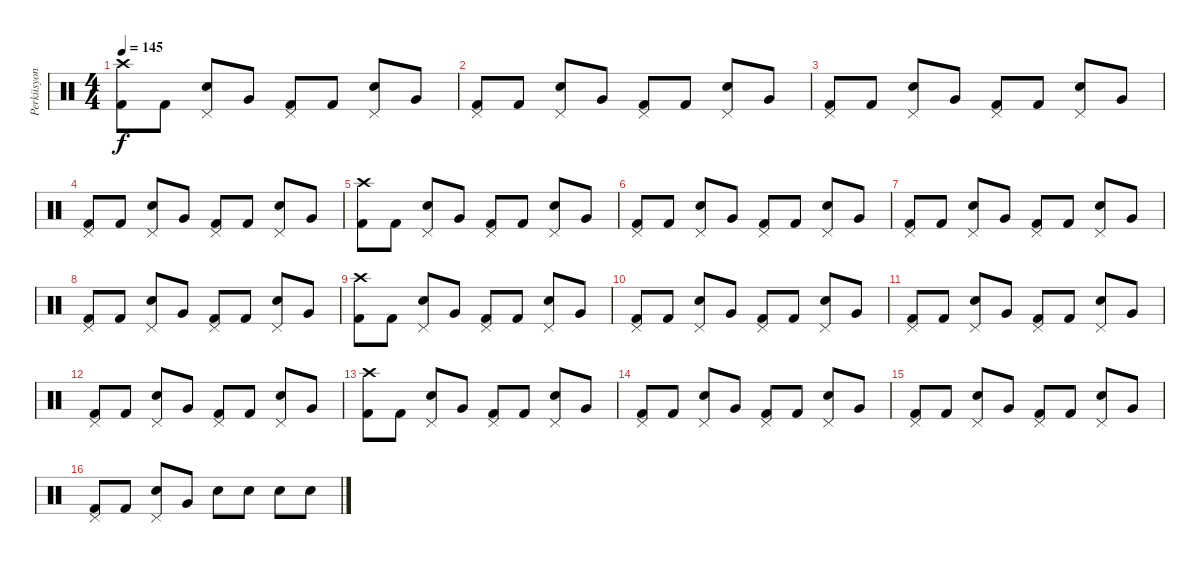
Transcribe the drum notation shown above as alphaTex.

\track ("Perküsyon" "Perküsyon") {instrument percussion}
\staff {score}
\articulation defaults
\ts (4 4)
\tempo 145
\clef neutral
\ks c
("Crash high (hit)" "Kick (hit) 2").8{dy f} "Kick (hit) 2".8 ("Pedal Hi-Hat (hit)" "Snare (hit) 2").8 "Very Low Tom (hit)".8 ("Pedal Hi-Hat (hit)" "Kick (hit) 2").8 "Kick (hit) 2".8 ("Pedal Hi-Hat (hit)" "Snare (hit) 2").8 "Very Low Tom (hit)".8 |
("Pedal Hi-Hat (hit)" "Kick (hit) 2").8 "Kick (hit) 2".8 ("Pedal Hi-Hat (hit)" "Snare (hit) 2").8 "Very Low Tom (hit)".8 ("Pedal Hi-Hat (hit)" "Kick (hit) 2").8 "Kick (hit) 2".8 ("Pedal Hi-Hat (hit)" "Snare (hit) 2").8 "Very Low Tom (hit)".8 |
("Pedal Hi-Hat (hit)" "Kick (hit) 2").8 "Kick (hit) 2".8 ("Pedal Hi-Hat (hit)" "Snare (hit) 2").8 "Very Low Tom (hit)".8 ("Pedal Hi-Hat (hit)" "Kick (hit) 2").8 "Kick (hit) 2".8 ("Pedal Hi-Hat (hit)" "Snare (hit) 2").8 "Very Low Tom (hit)".8 |
("Pedal Hi-Hat (hit)" "Kick (hit) 2").8 "Kick (hit) 2".8 ("Pedal Hi-Hat (hit)" "Snare (hit) 2").8 "Very Low Tom (hit)".8 ("Pedal Hi-Hat (hit)" "Kick (hit) 2").8 "Kick (hit) 2".8 ("Pedal Hi-Hat (hit)" "Snare (hit) 2").8 "Very Low Tom (hit)".8 |
("Crash high (hit)" "Kick (hit) 2").8 "Kick (hit) 2".8 ("Pedal Hi-Hat (hit)" "Snare (hit) 2").8 "Very Low Tom (hit)".8 ("Pedal Hi-Hat (hit)" "Kick (hit) 2").8 "Kick (hit) 2".8 ("Pedal Hi-Hat (hit)" "Snare (hit) 2").8 "Very Low Tom (hit)".8 |
("Pedal Hi-Hat (hit)" "Kick (hit) 2").8 "Kick (hit) 2".8 ("Pedal Hi-Hat (hit)" "Snare (hit) 2").8 "Very Low Tom (hit)".8 ("Pedal Hi-Hat (hit)" "Kick (hit) 2").8 "Kick (hit) 2".8 ("Pedal Hi-Hat (hit)" "Snare (hit) 2").8 "Very Low Tom (hit)".8 |
("Pedal Hi-Hat (hit)" "Kick (hit) 2").8 "Kick (hit) 2".8 ("Pedal Hi-Hat (hit)" "Snare (hit) 2").8 "Very Low Tom (hit)".8 ("Pedal Hi-Hat (hit)" "Kick (hit) 2").8 "Kick (hit) 2".8 ("Pedal Hi-Hat (hit)" "Snare (hit) 2").8 "Very Low Tom (hit)".8 |
("Pedal Hi-Hat (hit)" "Kick (hit) 2").8 "Kick (hit) 2".8 ("Pedal Hi-Hat (hit)" "Snare (hit) 2").8 "Very Low Tom (hit)".8 ("Pedal Hi-Hat (hit)" "Kick (hit) 2").8 "Kick (hit) 2".8 ("Pedal Hi-Hat (hit)" "Snare (hit) 2").8 "Very Low Tom (hit)".8 |
("Crash high (hit)" "Kick (hit) 2").8 "Kick (hit) 2".8 ("Pedal Hi-Hat (hit)" "Snare (hit) 2").8 "Very Low Tom (hit)".8 ("Pedal Hi-Hat (hit)" "Kick (hit) 2").8 "Kick (hit) 2".8 ("Pedal Hi-Hat (hit)" "Snare (hit) 2").8 "Very Low Tom (hit)".8 |
("Pedal Hi-Hat (hit)" "Kick (hit) 2").8 "Kick (hit) 2".8 ("Pedal Hi-Hat (hit)" "Snare (hit) 2").8 "Very Low Tom (hit)".8 ("Pedal Hi-Hat (hit)" "Kick (hit) 2").8 "Kick (hit) 2".8 ("Pedal Hi-Hat (hit)" "Snare (hit) 2").8 "Very Low Tom (hit)".8 |
("Pedal Hi-Hat (hit)" "Kick (hit) 2").8 "Kick (hit) 2".8 ("Pedal Hi-Hat (hit)" "Snare (hit) 2").8 "Very Low Tom (hit)".8 ("Pedal Hi-Hat (hit)" "Kick (hit) 2").8 "Kick (hit) 2".8 ("Pedal Hi-Hat (hit)" "Snare (hit) 2").8 "Very Low Tom (hit)".8 |
("Pedal Hi-Hat (hit)" "Kick (hit) 2").8 "Kick (hit) 2".8 ("Pedal Hi-Hat (hit)" "Snare (hit) 2").8 "Very Low Tom (hit)".8 ("Pedal Hi-Hat (hit)" "Kick (hit) 2").8 "Kick (hit) 2".8 ("Pedal Hi-Hat (hit)" "Snare (hit) 2").8 "Very Low Tom (hit)".8 |
("Crash high (hit)" "Kick (hit) 2").8 "Kick (hit) 2".8 ("Pedal Hi-Hat (hit)" "Snare (hit) 2").8 "Very Low Tom (hit)".8 ("Pedal Hi-Hat (hit)" "Kick (hit) 2").8 "Kick (hit) 2".8 ("Pedal Hi-Hat (hit)" "Snare (hit) 2").8 "Very Low Tom (hit)".8 |
("Pedal Hi-Hat (hit)" "Kick (hit) 2").8 "Kick (hit) 2".8 ("Pedal Hi-Hat (hit)" "Snare (hit) 2").8 "Very Low Tom (hit)".8 ("Pedal Hi-Hat (hit)" "Kick (hit) 2").8 "Kick (hit) 2".8 ("Pedal Hi-Hat (hit)" "Snare (hit) 2").8 "Very Low Tom (hit)".8 |
("Pedal Hi-Hat (hit)" "Kick (hit) 2").8 "Kick (hit) 2".8 ("Pedal Hi-Hat (hit)" "Snare (hit) 2").8 "Very Low Tom (hit)".8 ("Pedal Hi-Hat (hit)" "Kick (hit) 2").8 "Kick (hit) 2".8 ("Pedal Hi-Hat (hit)" "Snare (hit) 2").8 "Very Low Tom (hit)".8 |
("Pedal Hi-Hat (hit)" "Kick (hit) 2").8 "Kick (hit) 2".8 ("Pedal Hi-Hat (hit)" "Snare (hit) 2").8 "Very Low Tom (hit)".8 "Snare (hit) 2".8 "Snare (hit) 2".8 "Snare (hit) 2".8 "Snare (hit) 2".8
